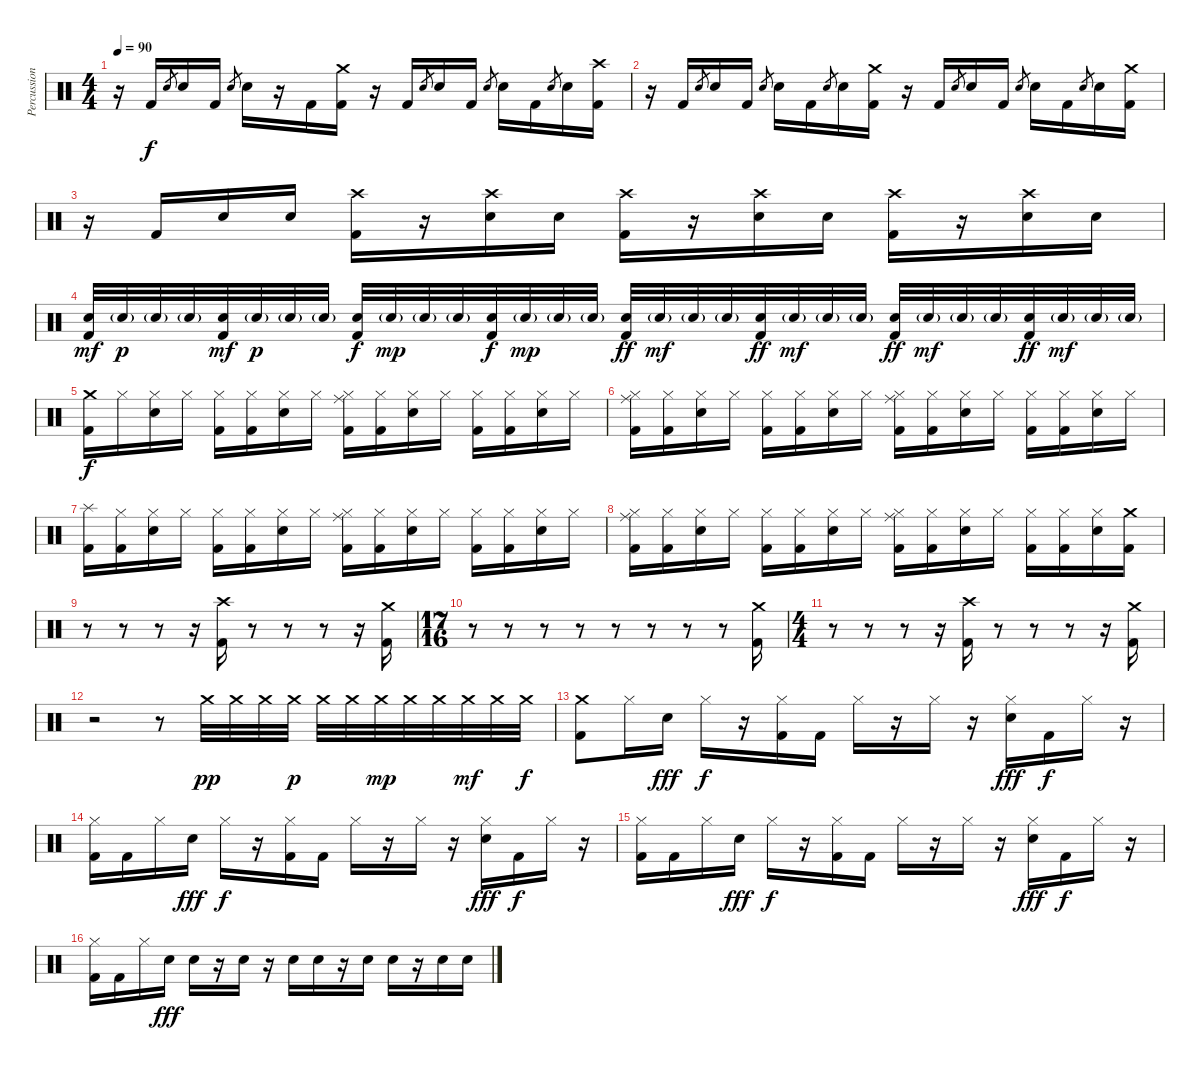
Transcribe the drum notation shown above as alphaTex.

\track ("Percussions" "Percussion") {instrument percussion}
\staff {score}
\articulation defaults
\ts (4 4)
\tempo 90
\clef neutral
\ks c
r.16{dy f} "Kick (hit) 2".16 "Electric Snare (hit)".8{gr} "Electric Snare (hit)".16 "Kick (hit) 2".16 "Electric Snare (hit)".8{gr} "Electric Snare (hit)".16 r.16 "Kick (hit) 2".16 ("Kick (hit) 2" "Crash medium (hit)").16 r.16 "Kick (hit) 2".16 "Electric Snare (hit)".8{gr} "Electric Snare (hit)".16 "Kick (hit) 2".16 "Electric Snare (hit)".8{gr} "Electric Snare (hit)".16 "Kick (hit) 2".16 "Electric Snare (hit)".8{gr} "Electric Snare (hit)".16 ("Kick (hit) 2" "Crash high (hit)").16 |
r.16 "Kick (hit) 2".16 "Electric Snare (hit)".8{gr} "Electric Snare (hit)".16 "Kick (hit) 2".16 "Electric Snare (hit)".8{gr} "Electric Snare (hit)".16 "Kick (hit) 2".16 "Electric Snare (hit)".8{gr} "Electric Snare (hit)".16 ("Kick (hit) 2" "Crash medium (hit)").16 r.16 "Kick (hit) 2".16 "Electric Snare (hit)".8{gr} "Electric Snare (hit)".16 "Kick (hit) 2".16 "Electric Snare (hit)".8{gr} "Electric Snare (hit)".16 "Kick (hit) 2".16 "Electric Snare (hit)".8{gr} "Electric Snare (hit)".16 ("Kick (hit) 2" "Crash medium (hit)").16 |
r.16 "Kick (hit) 2".16 "Electric Snare (hit)".16 "Electric Snare (hit)".16 ("Kick (hit) 2" "Crash high (hit)").16 r.16 ("Electric Snare (hit)" "Crash high (hit)").16 "Electric Snare (hit)".16 ("Kick (hit) 2" "Crash high (hit)").16 r.16 ("Electric Snare (hit)" "Crash high (hit)").16 "Electric Snare (hit)".16 ("Kick (hit) 2" "Crash high (hit)").16 r.16 ("Electric Snare (hit)" "Crash high (hit)").16 "Electric Snare (hit)".16 |
("Electric Snare (hit)" "Kick (hit) 2").32{dy mf} "Electric Snare (hit)"{g}.32{dy p} "Electric Snare (hit)"{g}.32 "Electric Snare (hit)"{g}.32 ("Electric Snare (hit)" "Kick (hit) 2").32{dy mf} "Electric Snare (hit)"{g}.32{dy p} "Electric Snare (hit)"{g}.32 "Electric Snare (hit)"{g}.32 ("Electric Snare (hit)" "Kick (hit) 2").32{dy f} "Electric Snare (hit)"{g}.32{dy mp} "Electric Snare (hit)"{g}.32 "Electric Snare (hit)"{g}.32 ("Electric Snare (hit)" "Kick (hit) 2").32{dy f} "Electric Snare (hit)"{g}.32{dy mp} "Electric Snare (hit)"{g}.32 "Electric Snare (hit)"{g}.32 ("Electric Snare (hit)" "Kick (hit) 2").32{dy ff} "Electric Snare (hit)"{g}.32{dy mf} "Electric Snare (hit)"{g}.32 "Electric Snare (hit)"{g}.32 ("Electric Snare (hit)" "Kick (hit) 2").32{dy ff} "Electric Snare (hit)"{g}.32{dy mf} "Electric Snare (hit)"{g}.32 "Electric Snare (hit)"{g}.32 ("Electric Snare (hit)" "Kick (hit) 2").32{dy ff} "Electric Snare (hit)"{g}.32{dy mf} "Electric Snare (hit)"{g}.32 "Electric Snare (hit)"{g}.32 ("Electric Snare (hit)" "Kick (hit) 2").32{dy ff} "Electric Snare (hit)"{g}.32{dy mf} "Electric Snare (hit)"{g}.32 "Electric Snare (hit)"{g}.32 |
\section ("" "")
("Kick (hit) 2" "Crash medium (hit)").16{dy f} "Hi-Hat (closed)".16 ("Electric Snare (hit)" "Hi-Hat (closed)").16 "Hi-Hat (closed)".16 ("Kick (hit) 2" "Hi-Hat (closed)").16 ("Kick (hit) 2" "Hi-Hat (closed)").16 ("Electric Snare (hit)" "Hi-Hat (closed)").16 "Hi-Hat (closed)".16 ("Kick (hit) 2" "Hi-Hat (closed)" "Ride (middle)").16 ("Kick (hit) 2" "Hi-Hat (closed)").16 ("Electric Snare (hit)" "Hi-Hat (closed)").16 "Hi-Hat (closed)".16 ("Kick (hit) 2" "Hi-Hat (closed)").16 ("Kick (hit) 2" "Hi-Hat (closed)").16 ("Electric Snare (hit)" "Hi-Hat (closed)").16 "Hi-Hat (closed)".16 |
("Kick (hit) 2" "Hi-Hat (closed)" "Ride (middle)").16 ("Kick (hit) 2" "Hi-Hat (closed)").16 ("Electric Snare (hit)" "Hi-Hat (closed)").16 "Hi-Hat (closed)".16 ("Kick (hit) 2" "Hi-Hat (closed)").16 ("Kick (hit) 2" "Hi-Hat (closed)").16 ("Electric Snare (hit)" "Hi-Hat (closed)").16 "Hi-Hat (closed)".16 ("Kick (hit) 2" "Hi-Hat (closed)" "Ride (middle)").16 ("Kick (hit) 2" "Hi-Hat (closed)").16 ("Electric Snare (hit)" "Hi-Hat (closed)").16 "Hi-Hat (closed)".16 ("Kick (hit) 2" "Hi-Hat (closed)").16 ("Kick (hit) 2" "Hi-Hat (closed)").16 ("Electric Snare (hit)" "Hi-Hat (closed)").16 "Hi-Hat (closed)".16 |
("Kick (hit) 2" "Splash (hit)").16 ("Kick (hit) 2" "Hi-Hat (closed)").16 ("Electric Snare (hit)" "Hi-Hat (closed)").16 "Hi-Hat (closed)".16 ("Kick (hit) 2" "Hi-Hat (closed)").16 ("Kick (hit) 2" "Hi-Hat (closed)").16 ("Electric Snare (hit)" "Hi-Hat (closed)").16 "Hi-Hat (closed)".16 ("Kick (hit) 2" "Hi-Hat (closed)" "Ride (middle)").16 ("Kick (hit) 2" "Hi-Hat (closed)").16 ("Electric Snare (hit)" "Hi-Hat (closed)").16 "Hi-Hat (closed)".16 ("Kick (hit) 2" "Hi-Hat (closed)").16 ("Kick (hit) 2" "Hi-Hat (closed)").16 ("Electric Snare (hit)" "Hi-Hat (closed)").16 "Hi-Hat (closed)".16 |
("Kick (hit) 2" "Hi-Hat (closed)" "Ride (middle)").16 ("Kick (hit) 2" "Hi-Hat (closed)").16 ("Electric Snare (hit)" "Hi-Hat (closed)").16 "Hi-Hat (closed)".16 ("Kick (hit) 2" "Hi-Hat (closed)").16 ("Kick (hit) 2" "Hi-Hat (closed)").16 ("Electric Snare (hit)" "Hi-Hat (closed)").16 "Hi-Hat (closed)".16 ("Kick (hit) 2" "Hi-Hat (closed)" "Ride (middle)").16 ("Kick (hit) 2" "Hi-Hat (closed)").16 ("Electric Snare (hit)" "Hi-Hat (closed)").16 "Hi-Hat (closed)".16 ("Kick (hit) 2" "Hi-Hat (closed)").16 ("Kick (hit) 2" "Hi-Hat (closed)").16 ("Electric Snare (hit)" "Hi-Hat (closed)").16 ("Kick (hit) 2" "Crash medium (hit)").16 |
r.8 r.8 r.8 r.16 ("Kick (hit) 2" "Crash high (hit)").16 r.8 r.8 r.8 r.16 ("Kick (hit) 2" "Crash medium (hit)").16 |
\ts (17 16)
r.8 r.8 r.8 r.8 r.8 r.8 r.8 r.8 ("Kick (hit) 2" "Crash medium (hit)").16 |
\ts (4 4)
r.8 r.8 r.8 r.16 ("Kick (hit) 2" "Crash high (hit)").16 r.8 r.8 r.8 r.16 ("Kick (hit) 2" "Crash medium (hit)").16 |
r.2 r.8 "Crash medium (hit)".32{dy pp} "Crash medium (hit)".32 "Crash medium (hit)".32 "Crash medium (hit)".32{dy p} "Crash medium (hit)".32 "Crash medium (hit)".32 "Crash medium (hit)".32{dy mp} "Crash medium (hit)".32 "Crash medium (hit)".32 "Crash medium (hit)".32{dy mf} "Crash medium (hit)".32 "Crash medium (hit)".32{dy f} |
\section ("" "")
("Kick (hit) 2" "Crash medium (hit)").8 "Hi-Hat (closed)".16 "Electric Snare (hit)".16{dy fff} "Hi-Hat (closed)".16{dy f} r.16 ("Kick (hit) 2" "Hi-Hat (closed)").16 "Kick (hit) 2".16 "Hi-Hat (closed)".16 r.16 "Hi-Hat (closed)".16 r.16 ("Electric Snare (hit)" "Hi-Hat (closed)").16{dy fff} "Kick (hit) 2".16{dy f} "Hi-Hat (closed)".16 r.16 |
("Kick (hit) 2" "Hi-Hat (closed)").16 "Kick (hit) 2".16 "Hi-Hat (closed)".16 "Electric Snare (hit)".16{dy fff} "Hi-Hat (closed)".16{dy f} r.16 ("Kick (hit) 2" "Hi-Hat (closed)").16 "Kick (hit) 2".16 "Hi-Hat (closed)".16 r.16 "Hi-Hat (closed)".16 r.16 ("Electric Snare (hit)" "Hi-Hat (closed)").16{dy fff} "Kick (hit) 2".16{dy f} "Hi-Hat (closed)".16 r.16 |
("Kick (hit) 2" "Hi-Hat (closed)").16 "Kick (hit) 2".16 "Hi-Hat (closed)".16 "Electric Snare (hit)".16{dy fff} "Hi-Hat (closed)".16{dy f} r.16 ("Kick (hit) 2" "Hi-Hat (closed)").16 "Kick (hit) 2".16 "Hi-Hat (closed)".16 r.16 "Hi-Hat (closed)".16 r.16 ("Electric Snare (hit)" "Hi-Hat (closed)").16{dy fff} "Kick (hit) 2".16{dy f} "Hi-Hat (closed)".16 r.16 |
("Kick (hit) 2" "Hi-Hat (closed)").16 "Kick (hit) 2".16 "Hi-Hat (closed)".16 "Electric Snare (hit)".16{dy fff} "Electric Snare (hit)".16 r.16 "Electric Snare (hit)".16 r.16 "Electric Snare (hit)".16 "Electric Snare (hit)".16 r.16 "Electric Snare (hit)".16 "Electric Snare (hit)".16 r.16 "Electric Snare (hit)".16 "Electric Snare (hit)".16
